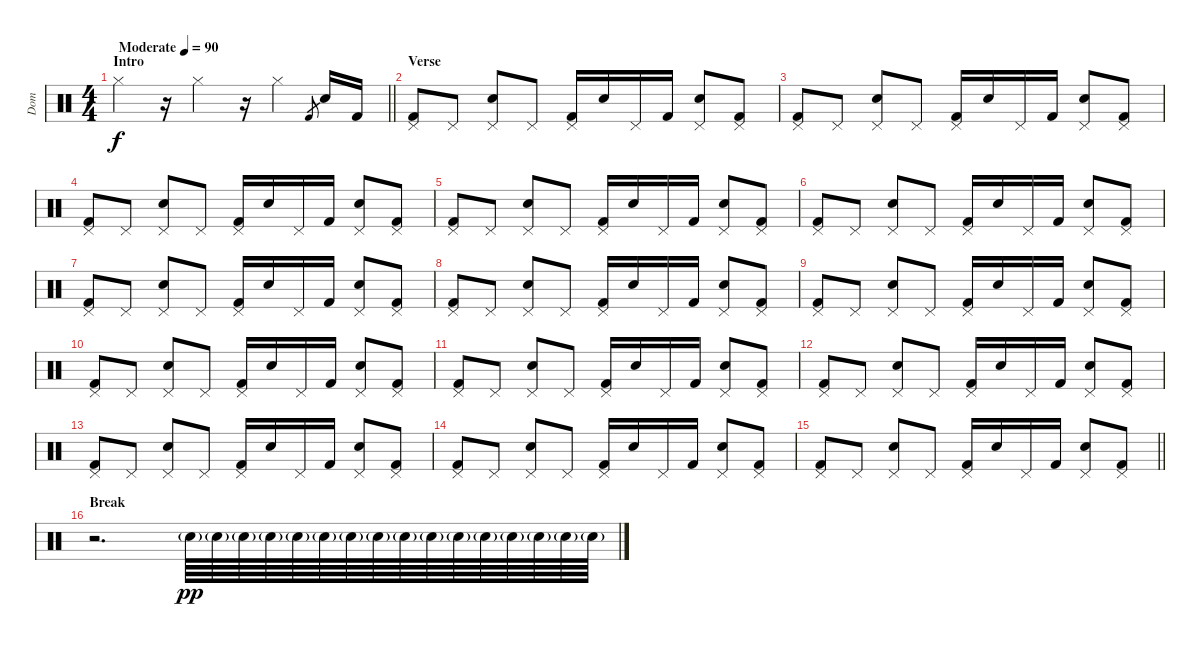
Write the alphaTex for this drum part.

\track ("Dom" "Dom") {instrument percussion}
\staff {score}
\articulation defaults
\ts (4 4)
\section ("" "Intro")
\tempo (90 "Moderate")
\tempo 120
\tempo (90 "Moderate")
\clef neutral
\barLineRight lightlight
\ks c "Hi-Hat (closed)".4{dy f}
r.16 "Hi-Hat (closed)".4 r.16 "Hi-Hat (closed)".4 "Kick (hit) 2".8{gr} "Snare (hit) 2".16 "Kick (hit) 2".16 |
\section ("" "Verse")
("Pedal Hi-Hat (hit)" "Kick (hit) 2").8 "Pedal Hi-Hat (hit)".8 ("Pedal Hi-Hat (hit)" "Snare (hit) 2").8 "Pedal Hi-Hat (hit)".8 ("Pedal Hi-Hat (hit)" "Kick (hit) 2").16 "Snare (hit) 2".16 "Pedal Hi-Hat (hit)".16 "Kick (hit) 2".16 ("Pedal Hi-Hat (hit)" "Snare (hit) 2").8 ("Pedal Hi-Hat (hit)" "Kick (hit) 2").8 |
("Pedal Hi-Hat (hit)" "Kick (hit) 2").8 "Pedal Hi-Hat (hit)".8 ("Pedal Hi-Hat (hit)" "Snare (hit) 2").8 "Pedal Hi-Hat (hit)".8 ("Pedal Hi-Hat (hit)" "Kick (hit) 2").16 "Snare (hit) 2".16 "Pedal Hi-Hat (hit)".16 "Kick (hit) 2".16 ("Pedal Hi-Hat (hit)" "Snare (hit) 2").8 ("Pedal Hi-Hat (hit)" "Kick (hit) 2").8 |
("Pedal Hi-Hat (hit)" "Kick (hit) 2").8 "Pedal Hi-Hat (hit)".8 ("Pedal Hi-Hat (hit)" "Snare (hit) 2").8 "Pedal Hi-Hat (hit)".8 ("Pedal Hi-Hat (hit)" "Kick (hit) 2").16 "Snare (hit) 2".16 "Pedal Hi-Hat (hit)".16 "Kick (hit) 2".16 ("Pedal Hi-Hat (hit)" "Snare (hit) 2").8 ("Pedal Hi-Hat (hit)" "Kick (hit) 2").8 |
("Pedal Hi-Hat (hit)" "Kick (hit) 2").8 "Pedal Hi-Hat (hit)".8 ("Pedal Hi-Hat (hit)" "Snare (hit) 2").8 "Pedal Hi-Hat (hit)".8 ("Pedal Hi-Hat (hit)" "Kick (hit) 2").16 "Snare (hit) 2".16 "Pedal Hi-Hat (hit)".16 "Kick (hit) 2".16 ("Pedal Hi-Hat (hit)" "Snare (hit) 2").8 ("Pedal Hi-Hat (hit)" "Kick (hit) 2").8 |
("Pedal Hi-Hat (hit)" "Kick (hit) 2").8 "Pedal Hi-Hat (hit)".8 ("Pedal Hi-Hat (hit)" "Snare (hit) 2").8 "Pedal Hi-Hat (hit)".8 ("Pedal Hi-Hat (hit)" "Kick (hit) 2").16 "Snare (hit) 2".16 "Pedal Hi-Hat (hit)".16 "Kick (hit) 2".16 ("Pedal Hi-Hat (hit)" "Snare (hit) 2").8 ("Pedal Hi-Hat (hit)" "Kick (hit) 2").8 |
("Pedal Hi-Hat (hit)" "Kick (hit) 2").8 "Pedal Hi-Hat (hit)".8 ("Pedal Hi-Hat (hit)" "Snare (hit) 2").8 "Pedal Hi-Hat (hit)".8 ("Pedal Hi-Hat (hit)" "Kick (hit) 2").16 "Snare (hit) 2".16 "Pedal Hi-Hat (hit)".16 "Kick (hit) 2".16 ("Pedal Hi-Hat (hit)" "Snare (hit) 2").8 ("Pedal Hi-Hat (hit)" "Kick (hit) 2").8 |
("Pedal Hi-Hat (hit)" "Kick (hit) 2").8 "Pedal Hi-Hat (hit)".8 ("Pedal Hi-Hat (hit)" "Snare (hit) 2").8 "Pedal Hi-Hat (hit)".8 ("Pedal Hi-Hat (hit)" "Kick (hit) 2").16 "Snare (hit) 2".16 "Pedal Hi-Hat (hit)".16 "Kick (hit) 2".16 ("Pedal Hi-Hat (hit)" "Snare (hit) 2").8 ("Pedal Hi-Hat (hit)" "Kick (hit) 2").8 |
("Pedal Hi-Hat (hit)" "Kick (hit) 2").8 "Pedal Hi-Hat (hit)".8 ("Pedal Hi-Hat (hit)" "Snare (hit) 2").8 "Pedal Hi-Hat (hit)".8 ("Pedal Hi-Hat (hit)" "Kick (hit) 2").16 "Snare (hit) 2".16 "Pedal Hi-Hat (hit)".16 "Kick (hit) 2".16 ("Pedal Hi-Hat (hit)" "Snare (hit) 2").8 ("Pedal Hi-Hat (hit)" "Kick (hit) 2").8 |
("Pedal Hi-Hat (hit)" "Kick (hit) 2").8 "Pedal Hi-Hat (hit)".8 ("Pedal Hi-Hat (hit)" "Snare (hit) 2").8 "Pedal Hi-Hat (hit)".8 ("Pedal Hi-Hat (hit)" "Kick (hit) 2").16 "Snare (hit) 2".16 "Pedal Hi-Hat (hit)".16 "Kick (hit) 2".16 ("Pedal Hi-Hat (hit)" "Snare (hit) 2").8 ("Pedal Hi-Hat (hit)" "Kick (hit) 2").8 |
("Pedal Hi-Hat (hit)" "Kick (hit) 2").8 "Pedal Hi-Hat (hit)".8 ("Pedal Hi-Hat (hit)" "Snare (hit) 2").8 "Pedal Hi-Hat (hit)".8 ("Pedal Hi-Hat (hit)" "Kick (hit) 2").16 "Snare (hit) 2".16 "Pedal Hi-Hat (hit)".16 "Kick (hit) 2".16 ("Pedal Hi-Hat (hit)" "Snare (hit) 2").8 ("Pedal Hi-Hat (hit)" "Kick (hit) 2").8 |
("Pedal Hi-Hat (hit)" "Kick (hit) 2").8 "Pedal Hi-Hat (hit)".8 ("Pedal Hi-Hat (hit)" "Snare (hit) 2").8 "Pedal Hi-Hat (hit)".8 ("Pedal Hi-Hat (hit)" "Kick (hit) 2").16 "Snare (hit) 2".16 "Pedal Hi-Hat (hit)".16 "Kick (hit) 2".16 ("Pedal Hi-Hat (hit)" "Snare (hit) 2").8 ("Pedal Hi-Hat (hit)" "Kick (hit) 2").8 |
("Pedal Hi-Hat (hit)" "Kick (hit) 2").8 "Pedal Hi-Hat (hit)".8 ("Pedal Hi-Hat (hit)" "Snare (hit) 2").8 "Pedal Hi-Hat (hit)".8 ("Pedal Hi-Hat (hit)" "Kick (hit) 2").16 "Snare (hit) 2".16 "Pedal Hi-Hat (hit)".16 "Kick (hit) 2".16 ("Pedal Hi-Hat (hit)" "Snare (hit) 2").8 ("Pedal Hi-Hat (hit)" "Kick (hit) 2").8 |
("Pedal Hi-Hat (hit)" "Kick (hit) 2").8 "Pedal Hi-Hat (hit)".8 ("Pedal Hi-Hat (hit)" "Snare (hit) 2").8 "Pedal Hi-Hat (hit)".8 ("Pedal Hi-Hat (hit)" "Kick (hit) 2").16 "Snare (hit) 2".16 "Pedal Hi-Hat (hit)".16 "Kick (hit) 2".16 ("Pedal Hi-Hat (hit)" "Snare (hit) 2").8 ("Pedal Hi-Hat (hit)" "Kick (hit) 2").8 |
\barLineRight lightlight
("Pedal Hi-Hat (hit)" "Kick (hit) 2").8 "Pedal Hi-Hat (hit)".8 ("Pedal Hi-Hat (hit)" "Snare (hit) 2").8 "Pedal Hi-Hat (hit)".8 ("Pedal Hi-Hat (hit)" "Kick (hit) 2").16 "Snare (hit) 2".16 "Pedal Hi-Hat (hit)".16 "Kick (hit) 2".16 ("Pedal Hi-Hat (hit)" "Snare (hit) 2").8 ("Pedal Hi-Hat (hit)" "Kick (hit) 2").8 |
\section ("" "Break")
r.2{d} "Snare (hit) 2"{g}.64{dy pp} "Snare (hit) 2"{g}.64 "Snare (hit) 2"{g}.64 "Snare (hit) 2"{g}.64 "Snare (hit) 2"{g}.64 "Snare (hit) 2"{g}.64 "Snare (hit) 2"{g}.64 "Snare (hit) 2"{g}.64 "Snare (hit) 2"{g}.64 "Snare (hit) 2"{g}.64 "Snare (hit) 2"{g}.64 "Snare (hit) 2"{g}.64 "Snare (hit) 2"{g}.64 "Snare (hit) 2"{g}.64 "Snare (hit) 2"{g}.64 "Snare (hit) 2"{g}.64
